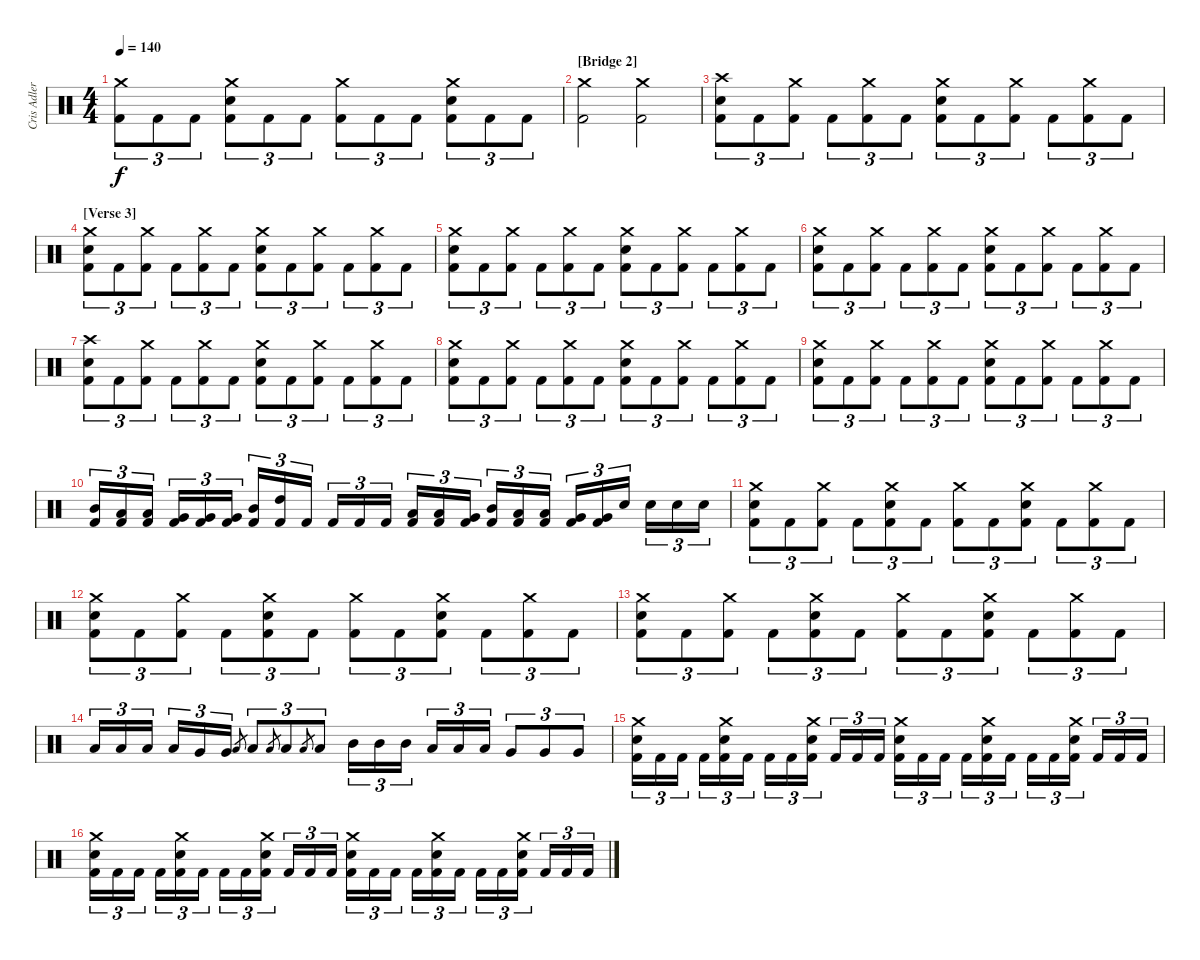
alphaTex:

\track ("Cris Adler" "Cris Adler") {instrument percussion}
\staff {score}
\articulation defaults
\ts (4 4)
\tempo 140
\clef neutral
\ks c
("Crash medium (hit)" "Kick (hit) 2").8{tu (3 2) dy f} "Kick (hit) 2".8{tu (3 2)} "Kick (hit) 2".8{tu (3 2)} ("Crash medium (hit)" "Electric Snare (hit)" "Kick (hit) 2").8{tu (3 2)} "Kick (hit) 2".8{tu (3 2)} "Kick (hit) 2".8{tu (3 2)} ("Crash medium (hit)" "Kick (hit) 2").8{tu (3 2)} "Kick (hit) 2".8{tu (3 2)} "Kick (hit) 2".8{tu (3 2)} ("Crash medium (hit)" "Electric Snare (hit)" "Kick (hit) 2").8{tu (3 2)} "Kick (hit) 2".8{tu (3 2)} "Kick (hit) 2".8{tu (3 2)} |
\section ("" "[Bridge 2]")
("Crash medium (hit)" "Kick (hit) 2").2 ("Crash medium (hit)" "Kick (hit) 2").2 |
("Crash high (hit)" "Electric Snare (hit)" "Kick (hit) 2").8{tu (3 2)} "Kick (hit) 2".8{tu (3 2)} ("Crash medium (hit)" "Kick (hit) 2").8{tu (3 2)} "Kick (hit) 2".8{tu (3 2)} ("Crash medium (hit)" "Kick (hit) 2").8{tu (3 2)} "Kick (hit) 2".8{tu (3 2)} ("Crash medium (hit)" "Electric Snare (hit)" "Kick (hit) 2").8{tu (3 2)} "Kick (hit) 2".8{tu (3 2)} ("Crash medium (hit)" "Kick (hit) 2").8{tu (3 2)} "Kick (hit) 2".8{tu (3 2)} ("Crash medium (hit)" "Kick (hit) 2").8{tu (3 2)} "Kick (hit) 2".8{tu (3 2)} |
\section ("" "[Verse 3]")
("Crash medium (hit)" "Electric Snare (hit)" "Kick (hit) 2").8{tu (3 2)} "Kick (hit) 2".8{tu (3 2)} ("Crash medium (hit)" "Kick (hit) 2").8{tu (3 2)} "Kick (hit) 2".8{tu (3 2)} ("Crash medium (hit)" "Kick (hit) 2").8{tu (3 2)} "Kick (hit) 2".8{tu (3 2)} ("Crash medium (hit)" "Electric Snare (hit)" "Kick (hit) 2").8{tu (3 2)} "Kick (hit) 2".8{tu (3 2)} ("Crash medium (hit)" "Kick (hit) 2").8{tu (3 2)} "Kick (hit) 2".8{tu (3 2)} ("Crash medium (hit)" "Kick (hit) 2").8{tu (3 2)} "Kick (hit) 2".8{tu (3 2)} |
("Crash medium (hit)" "Electric Snare (hit)" "Kick (hit) 2").8{tu (3 2)} "Kick (hit) 2".8{tu (3 2)} ("Crash medium (hit)" "Kick (hit) 2").8{tu (3 2)} "Kick (hit) 2".8{tu (3 2)} ("Crash medium (hit)" "Kick (hit) 2").8{tu (3 2)} "Kick (hit) 2".8{tu (3 2)} ("Crash medium (hit)" "Electric Snare (hit)" "Kick (hit) 2").8{tu (3 2)} "Kick (hit) 2".8{tu (3 2)} ("Crash medium (hit)" "Kick (hit) 2").8{tu (3 2)} "Kick (hit) 2".8{tu (3 2)} ("Crash medium (hit)" "Kick (hit) 2").8{tu (3 2)} "Kick (hit) 2".8{tu (3 2)} |
("Crash medium (hit)" "Electric Snare (hit)" "Kick (hit) 2").8{tu (3 2)} "Kick (hit) 2".8{tu (3 2)} ("Crash medium (hit)" "Kick (hit) 2").8{tu (3 2)} "Kick (hit) 2".8{tu (3 2)} ("Crash medium (hit)" "Kick (hit) 2").8{tu (3 2)} "Kick (hit) 2".8{tu (3 2)} ("Crash medium (hit)" "Electric Snare (hit)" "Kick (hit) 2").8{tu (3 2)} "Kick (hit) 2".8{tu (3 2)} ("Crash medium (hit)" "Kick (hit) 2").8{tu (3 2)} "Kick (hit) 2".8{tu (3 2)} ("Crash medium (hit)" "Kick (hit) 2").8{tu (3 2)} "Kick (hit) 2".8{tu (3 2)} |
("Crash high (hit)" "Electric Snare (hit)" "Kick (hit) 2").8{tu (3 2)} "Kick (hit) 2".8{tu (3 2)} ("Crash medium (hit)" "Kick (hit) 2").8{tu (3 2)} "Kick (hit) 2".8{tu (3 2)} ("Crash medium (hit)" "Kick (hit) 2").8{tu (3 2)} "Kick (hit) 2".8{tu (3 2)} ("Crash medium (hit)" "Electric Snare (hit)" "Kick (hit) 2").8{tu (3 2)} "Kick (hit) 2".8{tu (3 2)} ("Crash medium (hit)" "Kick (hit) 2").8{tu (3 2)} "Kick (hit) 2".8{tu (3 2)} ("Crash medium (hit)" "Kick (hit) 2").8{tu (3 2)} "Kick (hit) 2".8{tu (3 2)} |
("Crash medium (hit)" "Electric Snare (hit)" "Kick (hit) 2").8{tu (3 2)} "Kick (hit) 2".8{tu (3 2)} ("Crash medium (hit)" "Kick (hit) 2").8{tu (3 2)} "Kick (hit) 2".8{tu (3 2)} ("Crash medium (hit)" "Kick (hit) 2").8{tu (3 2)} "Kick (hit) 2".8{tu (3 2)} ("Crash medium (hit)" "Electric Snare (hit)" "Kick (hit) 2").8{tu (3 2)} "Kick (hit) 2".8{tu (3 2)} ("Crash medium (hit)" "Kick (hit) 2").8{tu (3 2)} "Kick (hit) 2".8{tu (3 2)} ("Crash medium (hit)" "Kick (hit) 2").8{tu (3 2)} "Kick (hit) 2".8{tu (3 2)} |
("Crash medium (hit)" "Electric Snare (hit)" "Kick (hit) 2").8{tu (3 2)} "Kick (hit) 2".8{tu (3 2)} ("Crash medium (hit)" "Kick (hit) 2").8{tu (3 2)} "Kick (hit) 2".8{tu (3 2)} ("Crash medium (hit)" "Kick (hit) 2").8{tu (3 2)} "Kick (hit) 2".8{tu (3 2)} ("Crash medium (hit)" "Electric Snare (hit)" "Kick (hit) 2").8{tu (3 2)} "Kick (hit) 2".8{tu (3 2)} ("Crash medium (hit)" "Kick (hit) 2").8{tu (3 2)} "Kick (hit) 2".8{tu (3 2)} ("Crash medium (hit)" "Kick (hit) 2").8{tu (3 2)} "Kick (hit) 2".8{tu (3 2)} |
("Mid Tom (hit)" "Kick (hit) 2").16{tu (3 2)} ("Low Tom (hit)" "Kick (hit) 2").16{tu (3 2)} ("Low Tom (hit)" "Kick (hit) 2").16{tu (3 2)} ("Very Low Tom (hit)" "Kick (hit) 2").16{tu (3 2)} ("Very Low Tom (hit)" "Kick (hit) 2").16{tu (3 2)} ("Very Low Tom (hit)" "Kick (hit) 2").16{tu (3 2)} ("Mid Tom (hit)" "Kick (hit) 2").16{tu (3 2)} ("High Tom (hit)" "Kick (hit) 2").16{tu (3 2)} "Kick (hit) 2".16{tu (3 2)} "Kick (hit) 2".16{tu (3 2)} "Kick (hit) 2".16{tu (3 2)} "Kick (hit) 2".16{tu (3 2)} ("Low Tom (hit)" "Kick (hit) 2").16{tu (3 2)} ("Low Tom (hit)" "Kick (hit) 2").16{tu (3 2)} ("Very Low Tom (hit)" "Kick (hit) 2").16{tu (3 2)} ("Mid Tom (hit)" "Kick (hit) 2").16{tu (3 2)} ("Low Tom (hit)" "Kick (hit) 2").16{tu (3 2)} ("Low Tom (hit)" "Kick (hit) 2").16{tu (3 2)} ("Very Low Tom (hit)" "Kick (hit) 2").16{tu (3 2)} ("Very Low Tom (hit)" "Kick (hit) 2").16{tu (3 2)} "Electric Snare (hit)".16{tu (3 2)} "Electric Snare (hit)".16{tu (3 2)} "Electric Snare (hit)".16{tu (3 2)} "Electric Snare (hit)".16{tu (3 2)} |
("Crash medium (hit)" "Electric Snare (hit)" "Kick (hit) 2").8{tu (3 2)} "Kick (hit) 2".8{tu (3 2)} ("Crash medium (hit)" "Kick (hit) 2").8{tu (3 2)} "Kick (hit) 2".8{tu (3 2)} ("Crash medium (hit)" "Electric Snare (hit)" "Kick (hit) 2").8{tu (3 2)} "Kick (hit) 2".8{tu (3 2)} ("Crash medium (hit)" "Kick (hit) 2").8{tu (3 2)} "Kick (hit) 2".8{tu (3 2)} ("Crash medium (hit)" "Electric Snare (hit)" "Kick (hit) 2").8{tu (3 2)} "Kick (hit) 2".8{tu (3 2)} ("Crash medium (hit)" "Kick (hit) 2").8{tu (3 2)} "Kick (hit) 2".8{tu (3 2)} |
("Crash medium (hit)" "Electric Snare (hit)" "Kick (hit) 2").8{tu (3 2)} "Kick (hit) 2".8{tu (3 2)} ("Crash medium (hit)" "Kick (hit) 2").8{tu (3 2)} "Kick (hit) 2".8{tu (3 2)} ("Crash medium (hit)" "Electric Snare (hit)" "Kick (hit) 2").8{tu (3 2)} "Kick (hit) 2".8{tu (3 2)} ("Crash medium (hit)" "Kick (hit) 2").8{tu (3 2)} "Kick (hit) 2".8{tu (3 2)} ("Crash medium (hit)" "Electric Snare (hit)" "Kick (hit) 2").8{tu (3 2)} "Kick (hit) 2".8{tu (3 2)} ("Crash medium (hit)" "Kick (hit) 2").8{tu (3 2)} "Kick (hit) 2".8{tu (3 2)} |
("Crash medium (hit)" "Electric Snare (hit)" "Kick (hit) 2").8{tu (3 2)} "Kick (hit) 2".8{tu (3 2)} ("Crash medium (hit)" "Kick (hit) 2").8{tu (3 2)} "Kick (hit) 2".8{tu (3 2)} ("Crash medium (hit)" "Electric Snare (hit)" "Kick (hit) 2").8{tu (3 2)} "Kick (hit) 2".8{tu (3 2)} ("Crash medium (hit)" "Kick (hit) 2").8{tu (3 2)} "Kick (hit) 2".8{tu (3 2)} ("Crash medium (hit)" "Electric Snare (hit)" "Kick (hit) 2").8{tu (3 2)} "Kick (hit) 2".8{tu (3 2)} ("Crash medium (hit)" "Kick (hit) 2").8{tu (3 2)} "Kick (hit) 2".8{tu (3 2)} |
"Low Tom (hit)".16{tu (3 2)} "Low Tom (hit)".16{tu (3 2)} "Low Tom (hit)".16{tu (3 2)} "Low Tom (hit)".16{tu (3 2)} "Very Low Tom (hit)".16{tu (3 2)} "Very Low Tom (hit)".16{tu (3 2)} "Low Floor Tom (hit)".8{gr} "Low Floor Tom (hit)".8{tu (3 2)} "Low Floor Tom (hit)".8{gr} "Low Floor Tom (hit)".8{tu (3 2)} "Low Floor Tom (hit)".8{gr} "Low Floor Tom (hit)".8{tu (3 2)} "Mid Tom (hit)".16{tu (3 2)} "Mid Tom (hit)".16{tu (3 2)} "Mid Tom (hit)".16{tu (3 2)} "Low Tom (hit)".16{tu (3 2)} "Low Tom (hit)".16{tu (3 2)} "Low Tom (hit)".16{tu (3 2)} "Very Low Tom (hit)".8{tu (3 2)} "Very Low Tom (hit)".8{tu (3 2)} "Very Low Tom (hit)".8{tu (3 2)} |
("Crash medium (hit)" "Electric Snare (hit)" "Kick (hit) 2").16{tu (3 2)} "Kick (hit) 2".16{tu (3 2)} "Kick (hit) 2".16{tu (3 2)} "Kick (hit) 2".16{tu (3 2)} ("Crash medium (hit)" "Electric Snare (hit)" "Kick (hit) 2").16{tu (3 2)} "Kick (hit) 2".16{tu (3 2)} "Kick (hit) 2".16{tu (3 2)} "Kick (hit) 2".16{tu (3 2)} ("Crash medium (hit)" "Electric Snare (hit)" "Kick (hit) 2").16{tu (3 2)} "Kick (hit) 2".16{tu (3 2)} "Kick (hit) 2".16{tu (3 2)} "Kick (hit) 2".16{tu (3 2)} ("Crash medium (hit)" "Electric Snare (hit)" "Kick (hit) 2").16{tu (3 2)} "Kick (hit) 2".16{tu (3 2)} "Kick (hit) 2".16{tu (3 2)} "Kick (hit) 2".16{tu (3 2)} ("Crash medium (hit)" "Electric Snare (hit)" "Kick (hit) 2").16{tu (3 2)} "Kick (hit) 2".16{tu (3 2)} "Kick (hit) 2".16{tu (3 2)} "Kick (hit) 2".16{tu (3 2)} ("Crash medium (hit)" "Electric Snare (hit)" "Kick (hit) 2").16{tu (3 2)} "Kick (hit) 2".16{tu (3 2)} "Kick (hit) 2".16{tu (3 2)} "Kick (hit) 2".16{tu (3 2)} |
("Crash medium (hit)" "Electric Snare (hit)" "Kick (hit) 2").16{tu (3 2)} "Kick (hit) 2".16{tu (3 2)} "Kick (hit) 2".16{tu (3 2)} "Kick (hit) 2".16{tu (3 2)} ("Crash medium (hit)" "Electric Snare (hit)" "Kick (hit) 2").16{tu (3 2)} "Kick (hit) 2".16{tu (3 2)} "Kick (hit) 2".16{tu (3 2)} "Kick (hit) 2".16{tu (3 2)} ("Crash medium (hit)" "Electric Snare (hit)" "Kick (hit) 2").16{tu (3 2)} "Kick (hit) 2".16{tu (3 2)} "Kick (hit) 2".16{tu (3 2)} "Kick (hit) 2".16{tu (3 2)} ("Crash medium (hit)" "Electric Snare (hit)" "Kick (hit) 2").16{tu (3 2)} "Kick (hit) 2".16{tu (3 2)} "Kick (hit) 2".16{tu (3 2)} "Kick (hit) 2".16{tu (3 2)} ("Crash medium (hit)" "Electric Snare (hit)" "Kick (hit) 2").16{tu (3 2)} "Kick (hit) 2".16{tu (3 2)} "Kick (hit) 2".16{tu (3 2)} "Kick (hit) 2".16{tu (3 2)} ("Crash medium (hit)" "Electric Snare (hit)" "Kick (hit) 2").16{tu (3 2)} "Kick (hit) 2".16{tu (3 2)} "Kick (hit) 2".16{tu (3 2)} "Kick (hit) 2".16{tu (3 2)}
